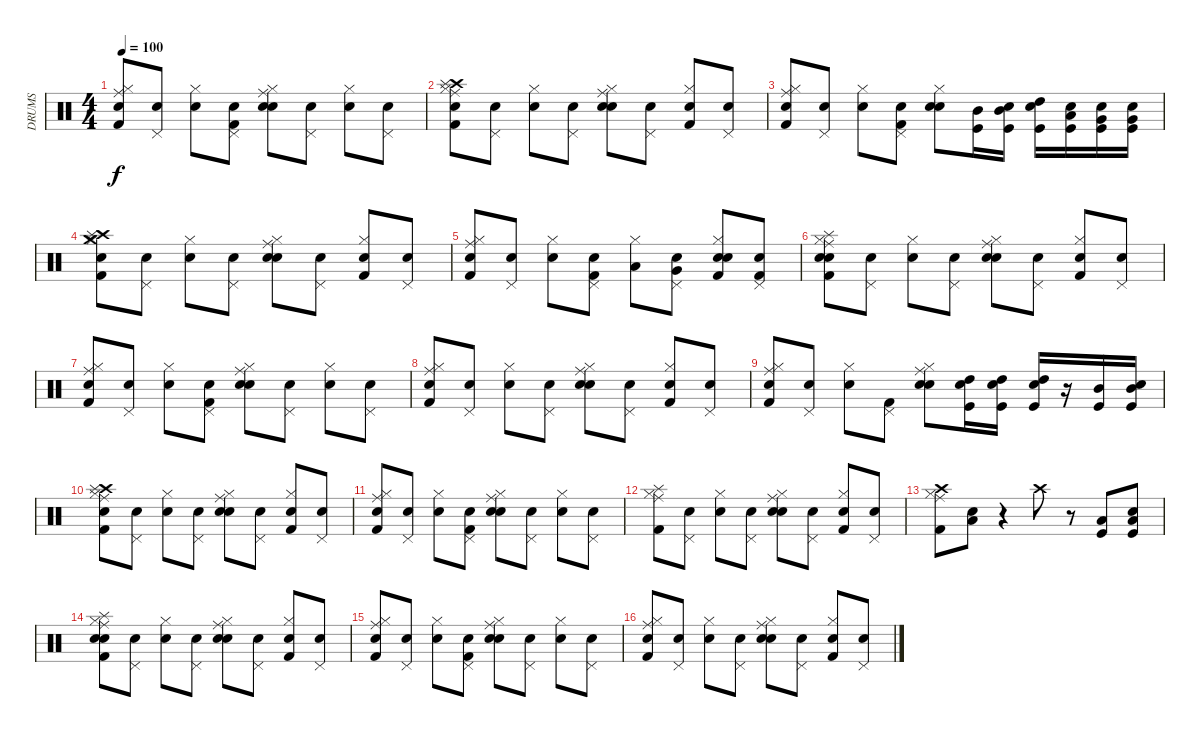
\track ("DRUMS" "DRUMS") {instrument percussion}
\staff {score}
\articulation defaults
\ts (4 4)
\tempo 100
\clef neutral
\ks c
("Snare (hit)" "Ride (middle)" "Hi-Hat (closed)" "Kick (hit) 2").8{dy f} ("Snare (hit)" "Pedal Hi-Hat (hit)").8 ("Snare (hit)" "Hi-Hat (closed)").8 ("Snare (hit)" "Pedal Hi-Hat (hit)" "Kick (hit) 2").8 ("Snare (hit)" "Ride (middle)" "Hi-Hat (closed)" "Snare (hit) 2").8 ("Snare (hit)" "Pedal Hi-Hat (hit)").8 ("Snare (hit)" "Hi-Hat (closed)").8 ("Snare (hit)" "Pedal Hi-Hat (hit)").8 |
("Snare (hit)" "Hi-Hat (closed)" "Ride (middle)" "Kick (hit) 2" "Crash high (hit)" "Splash (hit)").8 ("Snare (hit)" "Pedal Hi-Hat (hit)").8 ("Snare (hit)" "Hi-Hat (closed)").8 ("Snare (hit)" "Pedal Hi-Hat (hit)").8 ("Snare (hit)" "Ride (middle)" "Hi-Hat (closed)" "Snare (hit) 2").8 ("Snare (hit)" "Pedal Hi-Hat (hit)").8 ("Snare (hit)" "Hi-Hat (closed)" "Kick (hit) 2").8 ("Snare (hit)" "Pedal Hi-Hat (hit)").8 |
("Snare (hit)" "Ride (middle)" "Hi-Hat (closed)" "Kick (hit) 2").8 ("Snare (hit)" "Pedal Hi-Hat (hit)").8 ("Snare (hit)" "Hi-Hat (closed)").8 ("Snare (hit)" "Pedal Hi-Hat (hit)" "Kick (hit) 2").8 ("Snare (hit)" "Hi-Hat (closed)" "Snare (hit) 2").8 ("Kick (hit)" "Mid Tom (hit)").16 ("Snare (hit)" "Kick (hit)" "Mid Tom (hit)").16 ("Snare (hit)" "Kick (hit)" "High Tom (hit)").16 ("Snare (hit)" "Kick (hit)" "Low Tom (hit)").16 ("Snare (hit)" "Very Low Tom (hit)" "Kick (hit)").16 ("Snare (hit)" "Very Low Tom (hit)" "Kick (hit)").16 |
("Snare (hit)" "Crash medium (hit)" "Crash high (hit)" "Splash (hit)" "Kick (hit) 2" "Hi-Hat (closed)").8 ("Snare (hit)" "Pedal Hi-Hat (hit)").8 ("Snare (hit)" "Hi-Hat (closed)").8 ("Snare (hit)" "Pedal Hi-Hat (hit)").8 ("Snare (hit)" "Ride (middle)" "Hi-Hat (closed)" "Snare (hit) 2").8 ("Snare (hit)" "Pedal Hi-Hat (hit)").8 ("Snare (hit)" "Hi-Hat (closed)" "Kick (hit) 2").8 ("Snare (hit)" "Pedal Hi-Hat (hit)").8 |
("Snare (hit)" "Ride (middle)" "Hi-Hat (closed)" "Kick (hit) 2").8 ("Snare (hit)" "Pedal Hi-Hat (hit)").8 ("Snare (hit)" "Hi-Hat (closed)").8 ("Snare (hit)" "Pedal Hi-Hat (hit)" "Kick (hit) 2").8 ("Hi-Hat (closed)" "Low Tom (hit)").8 ("Snare (hit)" "Pedal Hi-Hat (hit)" "Very Low Tom (hit)").8 ("Snare (hit)" "Hi-Hat (closed)" "Snare (hit) 2" "Kick (hit) 2").8 ("Pedal Hi-Hat (hit)" "Snare (hit) 2" "Kick (hit) 2").8 |
("Snare (hit)" "Ride (middle)" "Hi-Hat (closed)" "Kick (hit) 2" "Snare (hit) 2" "Splash (hit)").8 ("Snare (hit)" "Pedal Hi-Hat (hit)").8 ("Snare (hit)" "Hi-Hat (closed)").8 ("Snare (hit)" "Pedal Hi-Hat (hit)").8 ("Snare (hit)" "Ride (middle)" "Hi-Hat (closed)" "Snare (hit) 2").8 ("Snare (hit)" "Pedal Hi-Hat (hit)").8 ("Snare (hit)" "Hi-Hat (closed)" "Kick (hit) 2").8 ("Snare (hit)" "Pedal Hi-Hat (hit)").8 |
("Snare (hit)" "Ride (middle)" "Hi-Hat (closed)" "Kick (hit) 2").8 ("Snare (hit)" "Pedal Hi-Hat (hit)").8 ("Snare (hit)" "Hi-Hat (closed)").8 ("Snare (hit)" "Pedal Hi-Hat (hit)" "Kick (hit) 2").8 ("Snare (hit)" "Ride (middle)" "Hi-Hat (closed)" "Snare (hit) 2").8 ("Snare (hit)" "Pedal Hi-Hat (hit)").8 ("Snare (hit)" "Hi-Hat (closed)").8 ("Snare (hit)" "Pedal Hi-Hat (hit)").8 |
("Snare (hit)" "Kick (hit) 2" "Ride (middle)" "Hi-Hat (closed)").8 ("Snare (hit)" "Pedal Hi-Hat (hit)").8 ("Snare (hit)" "Hi-Hat (closed)").8 ("Snare (hit)" "Pedal Hi-Hat (hit)").8 ("Snare (hit)" "Ride (middle)" "Hi-Hat (closed)" "Snare (hit) 2").8 ("Snare (hit)" "Pedal Hi-Hat (hit)").8 ("Snare (hit)" "Hi-Hat (closed)" "Kick (hit) 2").8 ("Snare (hit)" "Pedal Hi-Hat (hit)").8 |
("Snare (hit)" "Ride (middle)" "Hi-Hat (closed)" "Kick (hit) 2").8 ("Snare (hit)" "Pedal Hi-Hat (hit)").8 ("Snare (hit)" "Hi-Hat (closed)").8 ("Kick (hit) 2" "Pedal Hi-Hat (hit)").8 ("Snare (hit)" "Snare (hit) 2" "Ride (middle)" "Hi-Hat (closed)").8 ("Snare (hit)" "Kick (hit)" "High Tom (hit)").16 ("Snare (hit)" "Kick (hit)" "High Tom (hit)").16 ("Snare (hit)" "Kick (hit)" "High Tom (hit)").16 r.16 ("Kick (hit)" "Mid Tom (hit)").16 ("Snare (hit)" "Kick (hit)" "Mid Tom (hit)").16 |
("Snare (hit)" "Hi-Hat (closed)" "Ride (middle)" "Kick (hit) 2" "Crash high (hit)" "Splash (hit)").8 ("Snare (hit)" "Pedal Hi-Hat (hit)").8 ("Snare (hit)" "Hi-Hat (closed)").8 ("Snare (hit)" "Pedal Hi-Hat (hit)").8 ("Snare (hit)" "Ride (middle)" "Hi-Hat (closed)" "Snare (hit) 2").8 ("Snare (hit)" "Pedal Hi-Hat (hit)").8 ("Snare (hit)" "Hi-Hat (closed)" "Kick (hit) 2").8 ("Snare (hit)" "Pedal Hi-Hat (hit)").8 |
("Snare (hit)" "Ride (middle)" "Hi-Hat (closed)" "Kick (hit) 2").8 ("Snare (hit)" "Pedal Hi-Hat (hit)").8 ("Snare (hit)" "Hi-Hat (closed)").8 ("Snare (hit)" "Pedal Hi-Hat (hit)" "Kick (hit) 2").8 ("Snare (hit)" "Ride (middle)" "Hi-Hat (closed)" "Snare (hit) 2").8 ("Snare (hit)" "Pedal Hi-Hat (hit)").8 ("Snare (hit)" "Hi-Hat (closed)").8 ("Snare (hit)" "Pedal Hi-Hat (hit)").8 |
("Splash (hit)" "Kick (hit) 2" "Ride (middle)" "Hi-Hat (closed)").8 ("Snare (hit)" "Pedal Hi-Hat (hit)").8 ("Snare (hit)" "Hi-Hat (closed)").8 ("Snare (hit)" "Pedal Hi-Hat (hit)").8 ("Snare (hit)" "Ride (middle)" "Hi-Hat (closed)" "Snare (hit) 2").8 ("Snare (hit)" "Pedal Hi-Hat (hit)").8 ("Snare (hit)" "Hi-Hat (closed)" "Kick (hit) 2").8 ("Snare (hit)" "Pedal Hi-Hat (hit)").8 |
("Crash high (hit)" "Ride (middle)" "Hi-Hat (closed)" "Kick (hit) 2").8 ("Snare (hit)" "Low Tom (hit)").8 r.4 "Crash high (hit)".8 r.8 ("Kick (hit)" "Low Tom (hit)").8 ("Snare (hit)" "Kick (hit)" "Low Tom (hit)").8 |
("Snare (hit)" "Ride (middle)" "Hi-Hat (closed)" "Kick (hit) 2" "Snare (hit) 2" "Splash (hit)").8 ("Snare (hit)" "Pedal Hi-Hat (hit)").8 ("Snare (hit)" "Hi-Hat (closed)").8 ("Snare (hit)" "Pedal Hi-Hat (hit)").8 ("Snare (hit)" "Ride (middle)" "Hi-Hat (closed)" "Snare (hit) 2").8 ("Snare (hit)" "Pedal Hi-Hat (hit)").8 ("Snare (hit)" "Hi-Hat (closed)" "Kick (hit) 2").8 ("Snare (hit)" "Pedal Hi-Hat (hit)").8 |
("Snare (hit)" "Ride (middle)" "Hi-Hat (closed)" "Kick (hit) 2").8 ("Snare (hit)" "Pedal Hi-Hat (hit)").8 ("Snare (hit)" "Hi-Hat (closed)").8 ("Snare (hit)" "Pedal Hi-Hat (hit)" "Kick (hit) 2").8 ("Snare (hit)" "Ride (middle)" "Hi-Hat (closed)" "Snare (hit) 2").8 ("Snare (hit)" "Pedal Hi-Hat (hit)").8 ("Snare (hit)" "Hi-Hat (closed)").8 ("Snare (hit)" "Pedal Hi-Hat (hit)").8 |
("Snare (hit)" "Kick (hit) 2" "Ride (middle)" "Hi-Hat (closed)").8 ("Snare (hit)" "Pedal Hi-Hat (hit)").8 ("Snare (hit)" "Hi-Hat (closed)").8 ("Snare (hit)" "Pedal Hi-Hat (hit)").8 ("Snare (hit)" "Ride (middle)" "Hi-Hat (closed)" "Snare (hit) 2").8 ("Snare (hit)" "Pedal Hi-Hat (hit)").8 ("Snare (hit)" "Hi-Hat (closed)" "Kick (hit) 2").8 ("Snare (hit)" "Pedal Hi-Hat (hit)").8
